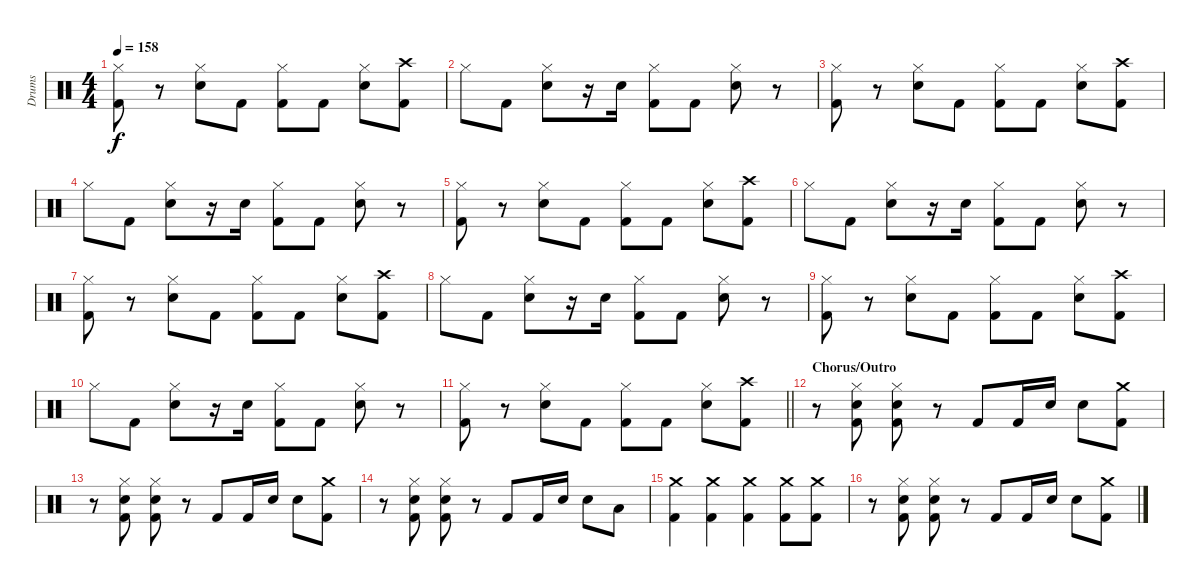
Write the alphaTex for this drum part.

\track ("Drums" "Drums") {instrument percussion}
\staff {score}
\articulation defaults
\ts (4 4)
\tempo 158
\clef neutral
\ks c
("Hi-Hat (closed)" "Kick (hit) 2").8{dy f} r.8 ("Hi-Hat (closed)" "Snare (hit) 2").8 "Kick (hit) 2".8 ("Hi-Hat (closed)" "Kick (hit) 2").8 "Kick (hit) 2".8 ("Hi-Hat (closed)" "Snare (hit) 2").8 ("Crash high (hit)" "Kick (hit) 2").8 |
"Hi-Hat (closed)".8 "Kick (hit) 2".8 ("Hi-Hat (closed)" "Snare (hit) 2").8 r.16 "Snare (hit) 2".16 ("Hi-Hat (closed)" "Kick (hit) 2").8 "Kick (hit) 2".8 ("Hi-Hat (closed)" "Snare (hit) 2").8 r.8 |
("Hi-Hat (closed)" "Kick (hit) 2").8 r.8 ("Hi-Hat (closed)" "Snare (hit) 2").8 "Kick (hit) 2".8 ("Hi-Hat (closed)" "Kick (hit) 2").8 "Kick (hit) 2".8 ("Hi-Hat (closed)" "Snare (hit) 2").8 ("Crash high (hit)" "Kick (hit) 2").8 |
"Hi-Hat (closed)".8 "Kick (hit) 2".8 ("Hi-Hat (closed)" "Snare (hit) 2").8 r.16 "Snare (hit) 2".16 ("Hi-Hat (closed)" "Kick (hit) 2").8 "Kick (hit) 2".8 ("Hi-Hat (closed)" "Snare (hit) 2").8 r.8 |
("Hi-Hat (closed)" "Kick (hit) 2").8 r.8 ("Hi-Hat (closed)" "Snare (hit) 2").8 "Kick (hit) 2".8 ("Hi-Hat (closed)" "Kick (hit) 2").8 "Kick (hit) 2".8 ("Hi-Hat (closed)" "Snare (hit) 2").8 ("Crash high (hit)" "Kick (hit) 2").8 |
"Hi-Hat (closed)".8 "Kick (hit) 2".8 ("Hi-Hat (closed)" "Snare (hit) 2").8 r.16 "Snare (hit) 2".16 ("Hi-Hat (closed)" "Kick (hit) 2").8 "Kick (hit) 2".8 ("Hi-Hat (closed)" "Snare (hit) 2").8 r.8 |
("Hi-Hat (closed)" "Kick (hit) 2").8 r.8 ("Hi-Hat (closed)" "Snare (hit) 2").8 "Kick (hit) 2".8 ("Hi-Hat (closed)" "Kick (hit) 2").8 "Kick (hit) 2".8 ("Hi-Hat (closed)" "Snare (hit) 2").8 ("Crash high (hit)" "Kick (hit) 2").8 |
"Hi-Hat (closed)".8 "Kick (hit) 2".8 ("Hi-Hat (closed)" "Snare (hit) 2").8 r.16 "Snare (hit) 2".16 ("Hi-Hat (closed)" "Kick (hit) 2").8 "Kick (hit) 2".8 ("Hi-Hat (closed)" "Snare (hit) 2").8 r.8 |
("Hi-Hat (closed)" "Kick (hit) 2").8 r.8 ("Hi-Hat (closed)" "Snare (hit) 2").8 "Kick (hit) 2".8 ("Hi-Hat (closed)" "Kick (hit) 2").8 "Kick (hit) 2".8 ("Hi-Hat (closed)" "Snare (hit) 2").8 ("Crash high (hit)" "Kick (hit) 2").8 |
"Hi-Hat (closed)".8 "Kick (hit) 2".8 ("Hi-Hat (closed)" "Snare (hit) 2").8 r.16 "Snare (hit) 2".16 ("Hi-Hat (closed)" "Kick (hit) 2").8 "Kick (hit) 2".8 ("Hi-Hat (closed)" "Snare (hit) 2").8 r.8 |
\barLineRight lightlight
("Hi-Hat (closed)" "Kick (hit) 2").8 r.8 ("Hi-Hat (closed)" "Snare (hit) 2").8 "Kick (hit) 2".8 ("Hi-Hat (closed)" "Kick (hit) 2").8 "Kick (hit) 2".8 ("Hi-Hat (closed)" "Snare (hit) 2").8 ("Crash high (hit)" "Kick (hit) 2").8 |
\section ("" "Chorus/Outro")
r.8 ("Hi-Hat (closed)" "Snare (hit) 2" "Kick (hit) 2").8 ("Hi-Hat (closed)" "Snare (hit) 2" "Kick (hit) 2").8 r.8 "Kick (hit) 2".8 "Kick (hit) 2".16 "Snare (hit) 2".16 "Snare (hit) 2".8 ("Crash medium (hit)" "Kick (hit) 2").8 |
r.8 ("Hi-Hat (closed)" "Snare (hit) 2" "Kick (hit) 2").8 ("Hi-Hat (closed)" "Snare (hit) 2" "Kick (hit) 2").8 r.8 "Kick (hit) 2".8 "Kick (hit) 2".16 "Snare (hit) 2".16 "Snare (hit) 2".8 ("Crash medium (hit)" "Kick (hit) 2").8 |
r.8 ("Hi-Hat (closed)" "Snare (hit) 2" "Kick (hit) 2").8 ("Hi-Hat (closed)" "Snare (hit) 2" "Kick (hit) 2").8 r.8 "Kick (hit) 2".8 "Kick (hit) 2".16 "Snare (hit) 2".16 "Snare (hit) 2".8 "Low Tom (hit)".8 |
("Crash medium (hit)" "Kick (hit) 2").4 ("Crash medium (hit)" "Kick (hit) 2").4 ("Crash medium (hit)" "Kick (hit) 2").4 ("Crash medium (hit)" "Kick (hit) 2").8 ("Crash medium (hit)" "Kick (hit) 2").8 |
r.8 ("Hi-Hat (closed)" "Snare (hit) 2" "Kick (hit) 2").8 ("Hi-Hat (closed)" "Snare (hit) 2" "Kick (hit) 2").8 r.8 "Kick (hit) 2".8 "Kick (hit) 2".16 "Snare (hit) 2".16 "Snare (hit) 2".8 ("Crash medium (hit)" "Kick (hit) 2").8
